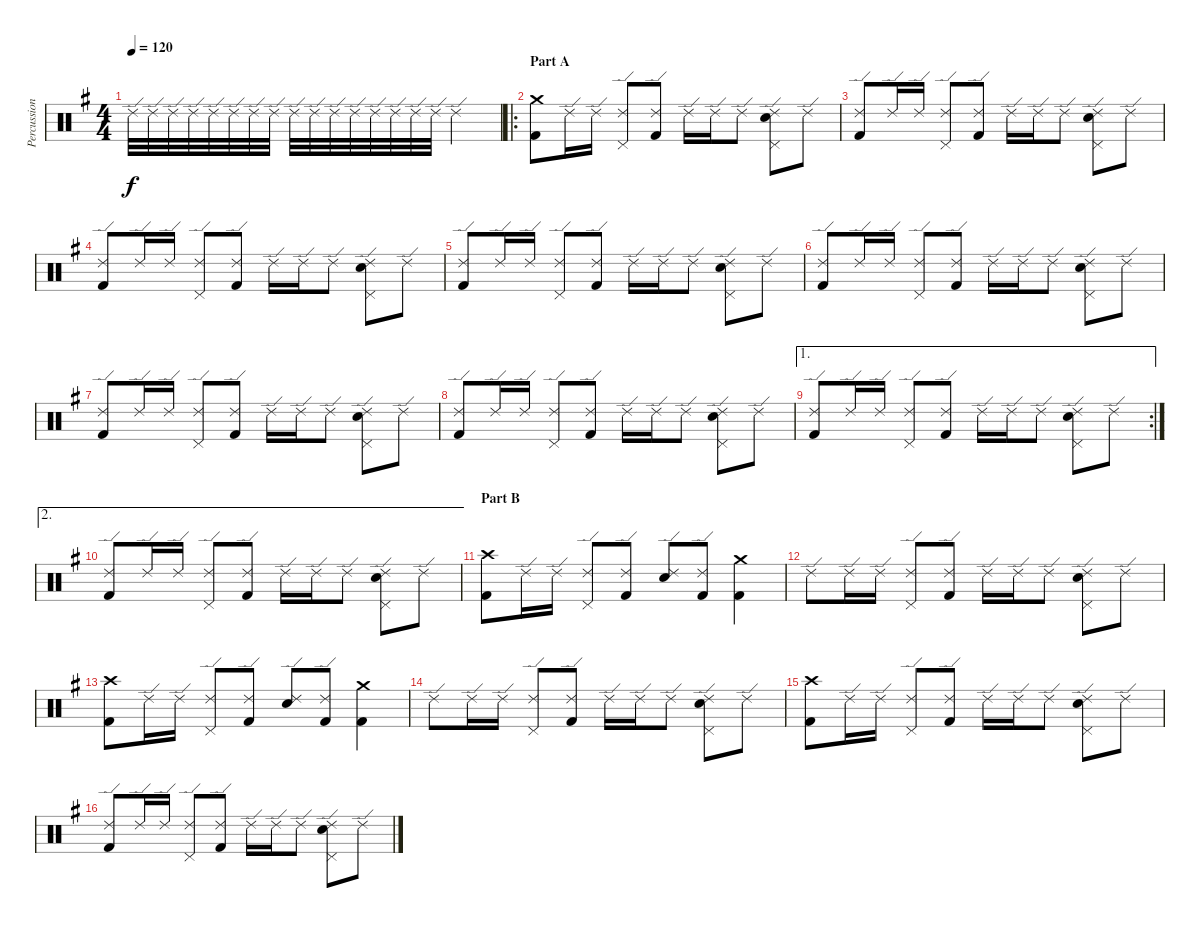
\track ("Percussion" "Percussion") {instrument percussion}
\staff {score}
\articulation defaults
\ts (4 4)
\tempo 120
\clef neutral
\ks eminor "Ride (edge) 2".32{dy f} "Ride (edge) 2".32 "Ride (edge) 2".32 "Ride (edge) 2".32 "Ride (edge) 2".32 "Ride (edge) 2".32 "Ride (edge) 2".32 "Ride (edge) 2".32 "Ride (edge) 2".32 "Ride (edge) 2".32 "Ride (edge) 2".32 "Ride (edge) 2".32 "Ride (edge) 2".32 "Ride (edge) 2".32 "Ride (edge) 2".32 "Ride (edge) 2".32 "Ride (edge) 2".2
|
\ro
\section ("" "Part A")
("Crash medium (hit)" "Kick (hit) 2").8 "Ride (edge) 2".16 "Ride (edge) 2".16 ("Ride (edge) 2" "Pedal Hi-Hat (hit)").8 ("Ride (edge) 2" "Kick (hit) 2").8 "Ride (edge) 2".16 "Ride (edge) 2".16 "Ride (edge) 2".8 ("Ride (edge) 2" "Pedal Hi-Hat (hit)" "Snare (hit) 2").8 "Ride (edge) 2".8 |
("Ride (edge) 2" "Kick (hit) 2").8 "Ride (edge) 2".16 "Ride (edge) 2".16 ("Ride (edge) 2" "Pedal Hi-Hat (hit)").8 ("Ride (edge) 2" "Kick (hit) 2").8 "Ride (edge) 2".16 "Ride (edge) 2".16 "Ride (edge) 2".8 ("Ride (edge) 2" "Pedal Hi-Hat (hit)" "Snare (hit) 2").8 "Ride (edge) 2".8 |
("Ride (edge) 2" "Kick (hit) 2").8 "Ride (edge) 2".16 "Ride (edge) 2".16 ("Ride (edge) 2" "Pedal Hi-Hat (hit)").8 ("Ride (edge) 2" "Kick (hit) 2").8 "Ride (edge) 2".16 "Ride (edge) 2".16 "Ride (edge) 2".8 ("Ride (edge) 2" "Pedal Hi-Hat (hit)" "Snare (hit) 2").8 "Ride (edge) 2".8 |
("Ride (edge) 2" "Kick (hit) 2").8 "Ride (edge) 2".16 "Ride (edge) 2".16 ("Ride (edge) 2" "Pedal Hi-Hat (hit)").8 ("Ride (edge) 2" "Kick (hit) 2").8 "Ride (edge) 2".16 "Ride (edge) 2".16 "Ride (edge) 2".8 ("Ride (edge) 2" "Pedal Hi-Hat (hit)" "Snare (hit) 2").8 "Ride (edge) 2".8 |
("Ride (edge) 2" "Kick (hit) 2").8 "Ride (edge) 2".16 "Ride (edge) 2".16 ("Ride (edge) 2" "Pedal Hi-Hat (hit)").8 ("Ride (edge) 2" "Kick (hit) 2").8 "Ride (edge) 2".16 "Ride (edge) 2".16 "Ride (edge) 2".8 ("Ride (edge) 2" "Pedal Hi-Hat (hit)" "Snare (hit) 2").8 "Ride (edge) 2".8 |
("Ride (edge) 2" "Kick (hit) 2").8 "Ride (edge) 2".16 "Ride (edge) 2".16 ("Ride (edge) 2" "Pedal Hi-Hat (hit)").8 ("Ride (edge) 2" "Kick (hit) 2").8 "Ride (edge) 2".16 "Ride (edge) 2".16 "Ride (edge) 2".8 ("Ride (edge) 2" "Pedal Hi-Hat (hit)" "Snare (hit) 2").8 "Ride (edge) 2".8 |
("Ride (edge) 2" "Kick (hit) 2").8 "Ride (edge) 2".16 "Ride (edge) 2".16 ("Ride (edge) 2" "Pedal Hi-Hat (hit)").8 ("Ride (edge) 2" "Kick (hit) 2").8 "Ride (edge) 2".16 "Ride (edge) 2".16 "Ride (edge) 2".8 ("Ride (edge) 2" "Pedal Hi-Hat (hit)" "Snare (hit) 2").8 "Ride (edge) 2".8 |
\ae 1
\rc 2
("Ride (edge) 2" "Kick (hit) 2").8 "Ride (edge) 2".16 "Ride (edge) 2".16 ("Ride (edge) 2" "Pedal Hi-Hat (hit)").8 ("Ride (edge) 2" "Kick (hit) 2").8 "Ride (edge) 2".16 "Ride (edge) 2".16 "Ride (edge) 2".8 ("Ride (edge) 2" "Pedal Hi-Hat (hit)" "Snare (hit) 2").8 "Ride (edge) 2".8 |
\ae 2
("Ride (edge) 2" "Kick (hit) 2").8 "Ride (edge) 2".16 "Ride (edge) 2".16 ("Ride (edge) 2" "Pedal Hi-Hat (hit)").8 ("Ride (edge) 2" "Kick (hit) 2").8 "Ride (edge) 2".16 "Ride (edge) 2".16 "Ride (edge) 2".8 ("Ride (edge) 2" "Pedal Hi-Hat (hit)" "Snare (hit) 2").8 "Ride (edge) 2".8 |
\section ("" "Part B")
("Crash high (hit)" "Kick (hit) 2").8 "Ride (edge) 2".16 "Ride (edge) 2".16 ("Ride (edge) 2" "Pedal Hi-Hat (hit)").8 ("Ride (edge) 2" "Kick (hit) 2").8 ("Ride (edge) 2" "Snare (hit) 2").8 ("Ride (edge) 2" "Kick (hit) 2").8 ("Crash medium (hit)" "Kick (hit) 2").4 |
"Ride (edge) 2".8 "Ride (edge) 2".16 "Ride (edge) 2".16 ("Ride (edge) 2" "Pedal Hi-Hat (hit)").8 ("Ride (edge) 2" "Kick (hit) 2").8 "Ride (edge) 2".16 "Ride (edge) 2".16 "Ride (edge) 2".8 ("Ride (edge) 2" "Pedal Hi-Hat (hit)" "Snare (hit) 2").8 "Ride (edge) 2".8 |
("Crash high (hit)" "Kick (hit) 2").8 "Ride (edge) 2".16 "Ride (edge) 2".16 ("Ride (edge) 2" "Pedal Hi-Hat (hit)").8 ("Ride (edge) 2" "Kick (hit) 2").8 ("Ride (edge) 2" "Snare (hit) 2").8 ("Ride (edge) 2" "Kick (hit) 2").8 ("Crash medium (hit)" "Kick (hit) 2").4 |
"Ride (edge) 2".8 "Ride (edge) 2".16 "Ride (edge) 2".16 ("Ride (edge) 2" "Pedal Hi-Hat (hit)").8 ("Ride (edge) 2" "Kick (hit) 2").8 "Ride (edge) 2".16 "Ride (edge) 2".16 "Ride (edge) 2".8 ("Ride (edge) 2" "Pedal Hi-Hat (hit)" "Snare (hit) 2").8 "Ride (edge) 2".8 |
("Crash high (hit)" "Kick (hit) 2").8 "Ride (edge) 2".16 "Ride (edge) 2".16 ("Ride (edge) 2" "Pedal Hi-Hat (hit)").8 ("Ride (edge) 2" "Kick (hit) 2").8 "Ride (edge) 2".16 "Ride (edge) 2".16 "Ride (edge) 2".8 ("Ride (edge) 2" "Pedal Hi-Hat (hit)" "Snare (hit) 2").8 "Ride (edge) 2".8 |
("Ride (edge) 2" "Kick (hit) 2").8 "Ride (edge) 2".16 "Ride (edge) 2".16 ("Ride (edge) 2" "Pedal Hi-Hat (hit)").8 ("Ride (edge) 2" "Kick (hit) 2").8 "Ride (edge) 2".16 "Ride (edge) 2".16 "Ride (edge) 2".8 ("Ride (edge) 2" "Pedal Hi-Hat (hit)" "Snare (hit) 2").8 "Ride (edge) 2".8
